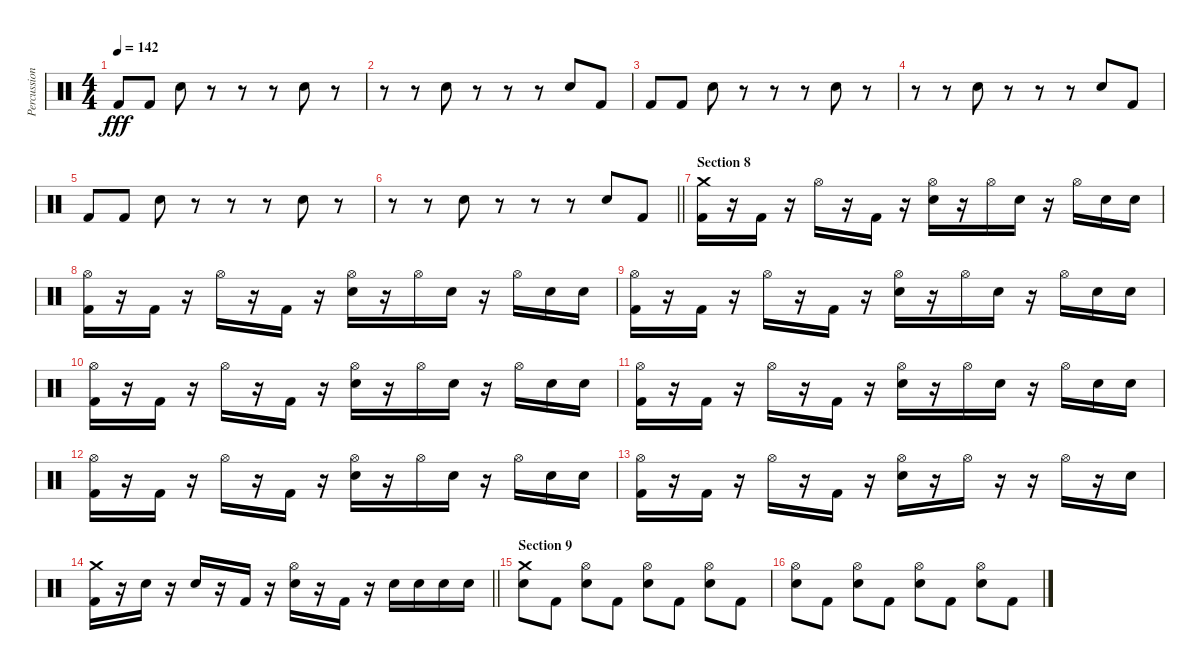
\track ("Percussion" "Percussion") {instrument percussion}
\staff {score}
\articulation defaults
\ts (4 4)
\tempo 142
\clef neutral
\ks c "Kick (hit) 2".8{dy fff} "Kick (hit) 2".8 "Electric Snare (hit)".8
r.8 r.8 r.8 "Electric Snare (hit)".8 r.8 |
r.8 r.8 "Electric Snare (hit)".8 r.8 r.8 r.8 "Electric Snare (hit)".8 "Kick (hit) 2".8 |
"Kick (hit) 2".8 "Kick (hit) 2".8 "Electric Snare (hit)".8 r.8 r.8 r.8 "Electric Snare (hit)".8 r.8 |
r.8 r.8 "Electric Snare (hit)".8 r.8 r.8 r.8 "Electric Snare (hit)".8 "Kick (hit) 2".8 |
"Kick (hit) 2".8 "Kick (hit) 2".8 "Electric Snare (hit)".8 r.8 r.8 r.8 "Electric Snare (hit)".8 r.8 |
\barLineRight lightlight
r.8 r.8 "Electric Snare (hit)".8 r.8 r.8 r.8 "Electric Snare (hit)".8 "Kick (hit) 2".8 |
\section ("" "Section 8")
("Crash medium (hit)" "Kick (hit) 2").16 r.16 "Kick (hit) 2".16 r.16 "Hi-Hat (open)".16 r.16 "Kick (hit) 2".16 r.16 ("Hi-Hat (open)" "Electric Snare (hit)").16 r.16 "Hi-Hat (open)".16 "Electric Snare (hit)".16 r.16 "Hi-Hat (open)".16 "Electric Snare (hit)".16 "Snare (hit)".16 |
("Hi-Hat (open)" "Kick (hit) 2").16 r.16 "Kick (hit) 2".16 r.16 "Hi-Hat (open)".16 r.16 "Kick (hit) 2".16 r.16 ("Hi-Hat (open)" "Electric Snare (hit)").16 r.16 "Hi-Hat (open)".16 "Electric Snare (hit)".16 r.16 "Hi-Hat (open)".16 "Electric Snare (hit)".16 "Snare (hit)".16 |
("Hi-Hat (open)" "Kick (hit) 2").16 r.16 "Kick (hit) 2".16 r.16 "Hi-Hat (open)".16 r.16 "Kick (hit) 2".16 r.16 ("Hi-Hat (open)" "Electric Snare (hit)").16 r.16 "Hi-Hat (open)".16 "Electric Snare (hit)".16 r.16 "Hi-Hat (open)".16 "Electric Snare (hit)".16 "Snare (hit)".16 |
("Hi-Hat (open)" "Kick (hit) 2").16 r.16 "Kick (hit) 2".16 r.16 "Hi-Hat (open)".16 r.16 "Kick (hit) 2".16 r.16 ("Hi-Hat (open)" "Electric Snare (hit)").16 r.16 "Hi-Hat (open)".16 "Electric Snare (hit)".16 r.16 "Hi-Hat (open)".16 "Electric Snare (hit)".16 "Snare (hit)".16 |
("Hi-Hat (open)" "Kick (hit) 2").16 r.16 "Kick (hit) 2".16 r.16 "Hi-Hat (open)".16 r.16 "Kick (hit) 2".16 r.16 ("Hi-Hat (open)" "Electric Snare (hit)").16 r.16 "Hi-Hat (open)".16 "Electric Snare (hit)".16 r.16 "Hi-Hat (open)".16 "Electric Snare (hit)".16 "Snare (hit)".16 |
("Hi-Hat (open)" "Kick (hit) 2").16 r.16 "Kick (hit) 2".16 r.16 "Hi-Hat (open)".16 r.16 "Kick (hit) 2".16 r.16 ("Hi-Hat (open)" "Electric Snare (hit)").16 r.16 "Hi-Hat (open)".16 "Electric Snare (hit)".16 r.16 "Hi-Hat (open)".16 "Electric Snare (hit)".16 "Snare (hit)".16 |
("Hi-Hat (open)" "Kick (hit) 2").16 r.16 "Kick (hit) 2".16 r.16 "Hi-Hat (open)".16 r.16 "Kick (hit) 2".16 r.16 ("Hi-Hat (open)" "Electric Snare (hit)").16 r.16 "Hi-Hat (open)".16 r.16 r.16 "Hi-Hat (open)".16 r.16 "Snare (hit)".16 |
\barLineRight lightlight
("Crash medium (hit)" "Kick (hit) 2").16 r.16 "Electric Snare (hit)".16 r.16 "Electric Snare (hit)".16 r.16 "Kick (hit) 2".16 r.16 ("Hi-Hat (open)" "Electric Snare (hit)").16 r.16 "Kick (hit) 2".16 r.16 "Electric Snare (hit)".16 "Electric Snare (hit)".16 "Electric Snare (hit)".16 "Electric Snare (hit)".16 |
\section ("" "Section 9")
("Crash medium (hit)" "Electric Snare (hit)").8 "Kick (hit) 2".8 ("Hi-Hat (open)" "Electric Snare (hit)").8 "Kick (hit) 2".8 ("Hi-Hat (open)" "Electric Snare (hit)").8 "Kick (hit) 2".8 ("Hi-Hat (open)" "Electric Snare (hit)").8 "Kick (hit) 2".8 |
("Hi-Hat (open)" "Electric Snare (hit)").8 "Kick (hit) 2".8 ("Hi-Hat (open)" "Electric Snare (hit)").8 "Kick (hit) 2".8 ("Hi-Hat (open)" "Electric Snare (hit)").8 "Kick (hit) 2".8 ("Hi-Hat (open)" "Electric Snare (hit)").8 "Kick (hit) 2".8
